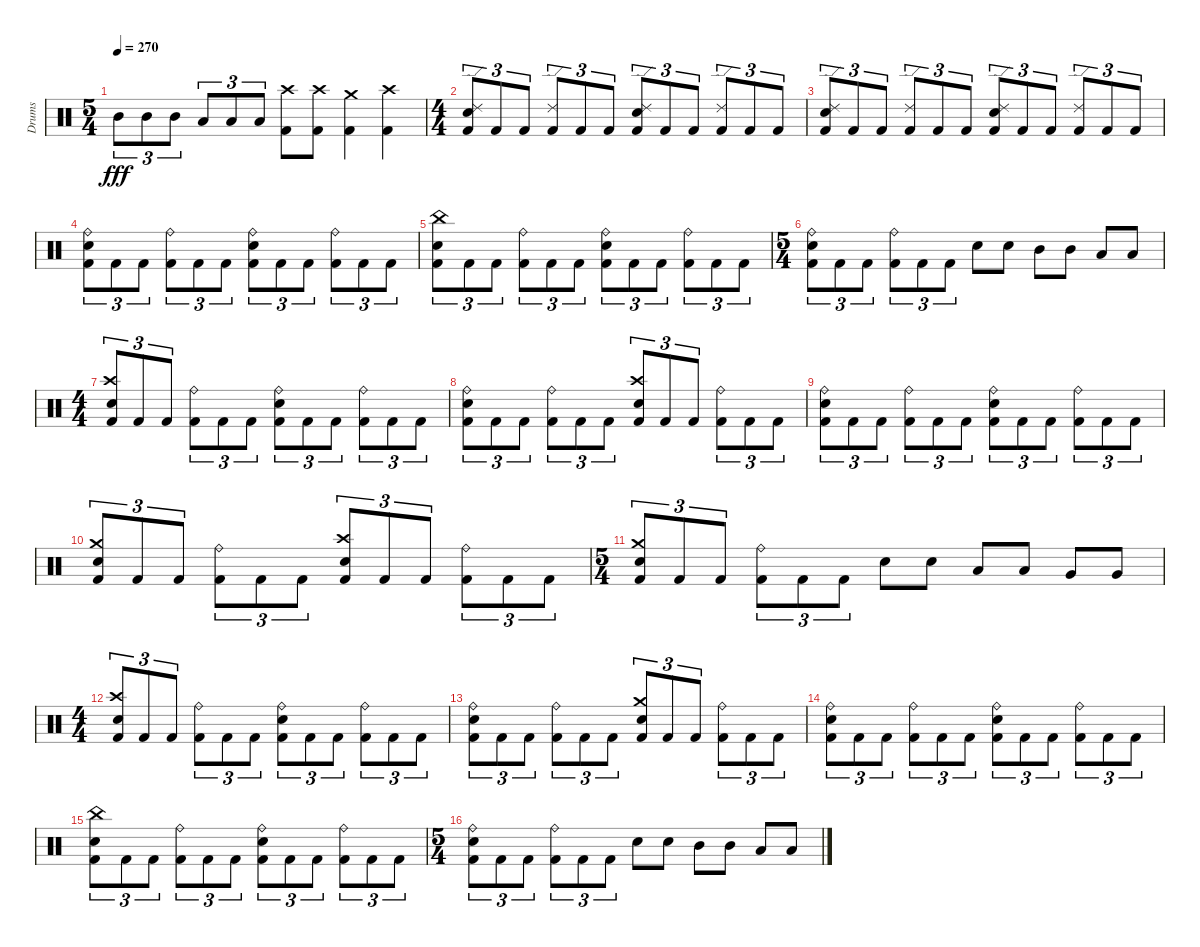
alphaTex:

\track ("Drums" "Drums") {instrument percussion}
\staff {score}
\articulation defaults
\ts (5 4)
\tempo 270
\clef neutral
\ks c "Mid Tom (hit)".8{tu (3 2) dy fff} "Mid Tom (hit)".8{tu (3 2)} "Mid Tom (hit)".8{tu (3 2)} "Low Tom (hit)".8{tu (3 2)} "Low Tom (hit)".8{tu (3 2)} "Low Tom (hit)".8{tu (3 2)}
("Kick (hit) 2" "Crash high (hit)").8 ("Kick (hit) 2" "Crash high (hit)").8 ("Crash medium (hit)" "Kick (hit) 2").4 ("Crash high (hit)" "Kick (hit) 2").4 |
\ts (4 4)
("Kick (hit) 2" "Snare (hit) 2" "Ride (edge) 2").8{tu (3 2)} "Kick (hit) 2".8{tu (3 2)} "Kick (hit) 2".8{tu (3 2)} ("Kick (hit) 2" "Ride (edge) 2").8{tu (3 2)} "Kick (hit) 2".8{tu (3 2)} "Kick (hit) 2".8{tu (3 2)} ("Kick (hit) 2" "Snare (hit) 2" "Ride (edge) 2").8{tu (3 2)} "Kick (hit) 2".8{tu (3 2)} "Kick (hit) 2".8{tu (3 2)} ("Kick (hit) 2" "Ride (edge) 2").8{tu (3 2)} "Kick (hit) 2".8{tu (3 2)} "Kick (hit) 2".8{tu (3 2)} |
("Kick (hit) 2" "Snare (hit) 2" "Ride (edge) 2").8{tu (3 2)} "Kick (hit) 2".8{tu (3 2)} "Kick (hit) 2".8{tu (3 2)} ("Kick (hit) 2" "Ride (edge) 2").8{tu (3 2)} "Kick (hit) 2".8{tu (3 2)} "Kick (hit) 2".8{tu (3 2)} ("Kick (hit) 2" "Snare (hit) 2" "Ride (edge) 2").8{tu (3 2)} "Kick (hit) 2".8{tu (3 2)} "Kick (hit) 2".8{tu (3 2)} ("Kick (hit) 2" "Ride (edge) 2").8{tu (3 2)} "Kick (hit) 2".8{tu (3 2)} "Kick (hit) 2".8{tu (3 2)} |
("Kick (hit) 2" "Snare (hit) 2" "Ride (bell)").8{tu (3 2)} "Kick (hit) 2".8{tu (3 2)} "Kick (hit) 2".8{tu (3 2)} ("Kick (hit) 2" "Ride (bell)").8{tu (3 2)} "Kick (hit) 2".8{tu (3 2)} "Kick (hit) 2".8{tu (3 2)} ("Kick (hit) 2" "Snare (hit) 2" "Ride (bell)").8{tu (3 2)} "Kick (hit) 2".8{tu (3 2)} "Kick (hit) 2".8{tu (3 2)} ("Kick (hit) 2" "Ride (bell)").8{tu (3 2)} "Kick (hit) 2".8{tu (3 2)} "Kick (hit) 2".8{tu (3 2)} |
("Kick (hit) 2" "Snare (hit) 2" "China (hit)").8{tu (3 2)} "Kick (hit) 2".8{tu (3 2)} "Kick (hit) 2".8{tu (3 2)} ("Kick (hit) 2" "Ride (bell)").8{tu (3 2)} "Kick (hit) 2".8{tu (3 2)} "Kick (hit) 2".8{tu (3 2)} ("Kick (hit) 2" "Snare (hit) 2" "Ride (bell)").8{tu (3 2)} "Kick (hit) 2".8{tu (3 2)} "Kick (hit) 2".8{tu (3 2)} ("Kick (hit) 2" "Ride (bell)").8{tu (3 2)} "Kick (hit) 2".8{tu (3 2)} "Kick (hit) 2".8{tu (3 2)} |
\ts (5 4)
("Kick (hit) 2" "Snare (hit) 2" "Ride (bell)").8{tu (3 2)} "Kick (hit) 2".8{tu (3 2)} "Kick (hit) 2".8{tu (3 2)} ("Kick (hit) 2" "Ride (bell)").8{tu (3 2)} "Kick (hit) 2".8{tu (3 2)} "Kick (hit) 2".8{tu (3 2)} "Snare (hit) 2".8 "Snare (hit) 2".8 "Mid Tom (hit)".8 "Mid Tom (hit)".8 "Low Tom (hit)".8 "Low Tom (hit)".8 |
\ts (4 4)
("Kick (hit) 2" "Snare (hit) 2" "Crash high (hit)").8{tu (3 2)} "Kick (hit) 2".8{tu (3 2)} "Kick (hit) 2".8{tu (3 2)} ("Kick (hit) 2" "Ride (bell)").8{tu (3 2)} "Kick (hit) 2".8{tu (3 2)} "Kick (hit) 2".8{tu (3 2)} ("Kick (hit) 2" "Snare (hit) 2" "Ride (bell)").8{tu (3 2)} "Kick (hit) 2".8{tu (3 2)} "Kick (hit) 2".8{tu (3 2)} ("Kick (hit) 2" "Ride (bell)").8{tu (3 2)} "Kick (hit) 2".8{tu (3 2)} "Kick (hit) 2".8{tu (3 2)} |
("Kick (hit) 2" "Snare (hit) 2" "Ride (bell)").8{tu (3 2)} "Kick (hit) 2".8{tu (3 2)} "Kick (hit) 2".8{tu (3 2)} ("Kick (hit) 2" "Ride (bell)").8{tu (3 2)} "Kick (hit) 2".8{tu (3 2)} "Kick (hit) 2".8{tu (3 2)} ("Kick (hit) 2" "Snare (hit) 2" "Crash high (hit)").8{tu (3 2)} "Kick (hit) 2".8{tu (3 2)} "Kick (hit) 2".8{tu (3 2)} ("Kick (hit) 2" "Ride (bell)").8{tu (3 2)} "Kick (hit) 2".8{tu (3 2)} "Kick (hit) 2".8{tu (3 2)} |
("Kick (hit) 2" "Snare (hit) 2" "Ride (bell)").8{tu (3 2)} "Kick (hit) 2".8{tu (3 2)} "Kick (hit) 2".8{tu (3 2)} ("Kick (hit) 2" "Ride (bell)").8{tu (3 2)} "Kick (hit) 2".8{tu (3 2)} "Kick (hit) 2".8{tu (3 2)} ("Kick (hit) 2" "Snare (hit) 2" "Ride (bell)").8{tu (3 2)} "Kick (hit) 2".8{tu (3 2)} "Kick (hit) 2".8{tu (3 2)} ("Kick (hit) 2" "Ride (bell)").8{tu (3 2)} "Kick (hit) 2".8{tu (3 2)} "Kick (hit) 2".8{tu (3 2)} |
("Kick (hit) 2" "Snare (hit) 2" "Crash medium (hit)").8{tu (3 2)} "Kick (hit) 2".8{tu (3 2)} "Kick (hit) 2".8{tu (3 2)} ("Kick (hit) 2" "Ride (bell)").8{tu (3 2)} "Kick (hit) 2".8{tu (3 2)} "Kick (hit) 2".8{tu (3 2)} ("Kick (hit) 2" "Snare (hit) 2" "Crash high (hit)").8{tu (3 2)} "Kick (hit) 2".8{tu (3 2)} "Kick (hit) 2".8{tu (3 2)} ("Kick (hit) 2" "Ride (bell)").8{tu (3 2)} "Kick (hit) 2".8{tu (3 2)} "Kick (hit) 2".8{tu (3 2)} |
\ts (5 4)
("Kick (hit) 2" "Snare (hit) 2" "Crash medium (hit)").8{tu (3 2)} "Kick (hit) 2".8{tu (3 2)} "Kick (hit) 2".8{tu (3 2)} ("Kick (hit) 2" "Ride (bell)").8{tu (3 2)} "Kick (hit) 2".8{tu (3 2)} "Kick (hit) 2".8{tu (3 2)} "Snare (hit) 2".8 "Snare (hit) 2".8 "Low Tom (hit)".8 "Low Tom (hit)".8 "Very Low Tom (hit)".8 "Very Low Tom (hit)".8 |
\ts (4 4)
("Kick (hit) 2" "Snare (hit) 2" "Crash high (hit)").8{tu (3 2)} "Kick (hit) 2".8{tu (3 2)} "Kick (hit) 2".8{tu (3 2)} ("Kick (hit) 2" "Ride (bell)").8{tu (3 2)} "Kick (hit) 2".8{tu (3 2)} "Kick (hit) 2".8{tu (3 2)} ("Kick (hit) 2" "Snare (hit) 2" "Ride (bell)").8{tu (3 2)} "Kick (hit) 2".8{tu (3 2)} "Kick (hit) 2".8{tu (3 2)} ("Kick (hit) 2" "Ride (bell)").8{tu (3 2)} "Kick (hit) 2".8{tu (3 2)} "Kick (hit) 2".8{tu (3 2)} |
("Kick (hit) 2" "Snare (hit) 2" "Ride (bell)").8{tu (3 2)} "Kick (hit) 2".8{tu (3 2)} "Kick (hit) 2".8{tu (3 2)} ("Kick (hit) 2" "Ride (bell)").8{tu (3 2)} "Kick (hit) 2".8{tu (3 2)} "Kick (hit) 2".8{tu (3 2)} ("Kick (hit) 2" "Snare (hit) 2" "Crash medium (hit)").8{tu (3 2)} "Kick (hit) 2".8{tu (3 2)} "Kick (hit) 2".8{tu (3 2)} ("Kick (hit) 2" "Ride (bell)").8{tu (3 2)} "Kick (hit) 2".8{tu (3 2)} "Kick (hit) 2".8{tu (3 2)} |
("Kick (hit) 2" "Snare (hit) 2" "Ride (bell)").8{tu (3 2)} "Kick (hit) 2".8{tu (3 2)} "Kick (hit) 2".8{tu (3 2)} ("Kick (hit) 2" "Ride (bell)").8{tu (3 2)} "Kick (hit) 2".8{tu (3 2)} "Kick (hit) 2".8{tu (3 2)} ("Kick (hit) 2" "Snare (hit) 2" "Ride (bell)").8{tu (3 2)} "Kick (hit) 2".8{tu (3 2)} "Kick (hit) 2".8{tu (3 2)} ("Kick (hit) 2" "Ride (bell)").8{tu (3 2)} "Kick (hit) 2".8{tu (3 2)} "Kick (hit) 2".8{tu (3 2)} |
("Kick (hit) 2" "Snare (hit) 2" "China (hit)").8{tu (3 2)} "Kick (hit) 2".8{tu (3 2)} "Kick (hit) 2".8{tu (3 2)} ("Kick (hit) 2" "Ride (bell)").8{tu (3 2)} "Kick (hit) 2".8{tu (3 2)} "Kick (hit) 2".8{tu (3 2)} ("Kick (hit) 2" "Snare (hit) 2" "Ride (bell)").8{tu (3 2)} "Kick (hit) 2".8{tu (3 2)} "Kick (hit) 2".8{tu (3 2)} ("Kick (hit) 2" "Ride (bell)").8{tu (3 2)} "Kick (hit) 2".8{tu (3 2)} "Kick (hit) 2".8{tu (3 2)} |
\ts (5 4)
("Kick (hit) 2" "Snare (hit) 2" "Ride (bell)").8{tu (3 2)} "Kick (hit) 2".8{tu (3 2)} "Kick (hit) 2".8{tu (3 2)} ("Kick (hit) 2" "Ride (bell)").8{tu (3 2)} "Kick (hit) 2".8{tu (3 2)} "Kick (hit) 2".8{tu (3 2)} "Snare (hit) 2".8 "Snare (hit) 2".8 "Mid Tom (hit)".8 "Mid Tom (hit)".8 "Low Tom (hit)".8 "Low Tom (hit)".8
